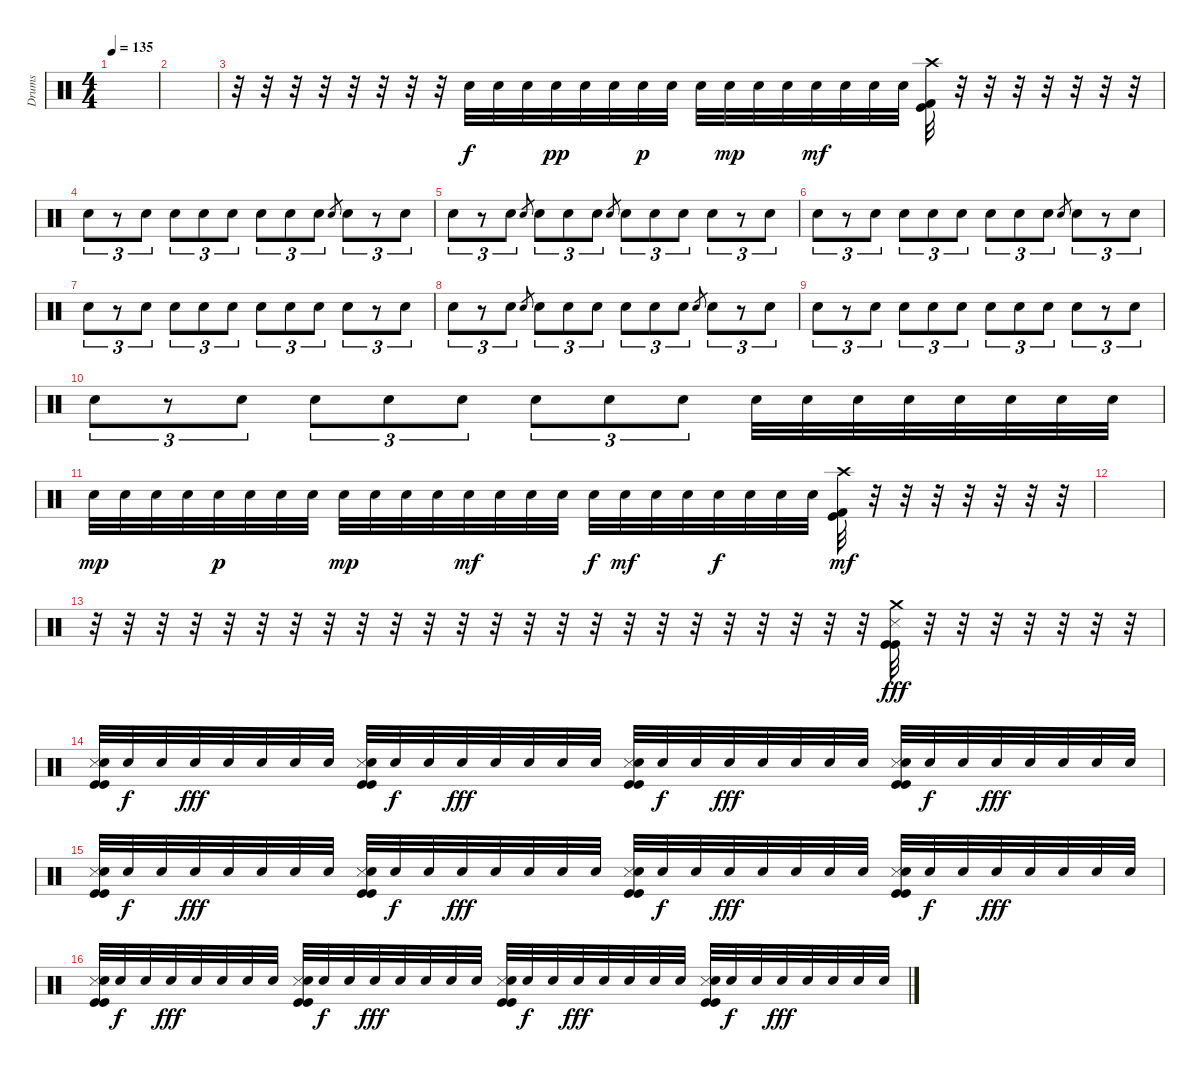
\track ("Drums" "Drums") {instrument percussion bank 24}
\staff
\articulation defaults
\ts (4 4)
\tempo 135
\clef neutral
\ks c
|
|
r.32 r.32 r.32 r.32 r.32 r.32 r.32 r.32 "Electric Snare (hit)".32 "Electric Snare (hit)".32 "Electric Snare (hit)".32 "Electric Snare (hit)".32{dy pp} "Electric Snare (hit)".32 "Electric Snare (hit)".32 "Electric Snare (hit)".32{dy p} "Electric Snare (hit)".32 "Electric Snare (hit)".32 "Electric Snare (hit)".32{dy mp} "Electric Snare (hit)".32 "Electric Snare (hit)".32 "Electric Snare (hit)".32{dy mf} "Electric Snare (hit)".32 "Electric Snare (hit)".32 "Electric Snare (hit)".32 ("Kick (hit)" "Kick (hit) 2" "Crash high (hit)").32 r.32 r.32 r.32 r.32 r.32 r.32 r.32 |
"Electric Snare (hit)".8{tu (3 2)} r.8{tu (3 2)} "Electric Snare (hit)".8{tu (3 2)} "Electric Snare (hit)".8{tu (3 2)} "Electric Snare (hit)".8{tu (3 2)} "Electric Snare (hit)".8{tu (3 2)} "Electric Snare (hit)".8{tu (3 2)} "Electric Snare (hit)".8{tu (3 2)} "Electric Snare (hit)".8{tu (3 2)} "Electric Snare (hit)".8{gr} "Electric Snare (hit)".8{tu (3 2)} r.8{tu (3 2)} "Electric Snare (hit)".8{tu (3 2)} |
"Electric Snare (hit)".8{tu (3 2)} r.8{tu (3 2)} "Electric Snare (hit)".8{tu (3 2)} "Electric Snare (hit)".8{gr} "Electric Snare (hit)".8{tu (3 2)} "Electric Snare (hit)".8{tu (3 2)} "Electric Snare (hit)".8{tu (3 2)} "Electric Snare (hit)".8{gr} "Electric Snare (hit)".8{tu (3 2)} "Electric Snare (hit)".8{tu (3 2)} "Electric Snare (hit)".8{tu (3 2)} "Electric Snare (hit)".8{tu (3 2)} r.8{tu (3 2)} "Electric Snare (hit)".8{tu (3 2)} |
"Electric Snare (hit)".8{tu (3 2)} r.8{tu (3 2)} "Electric Snare (hit)".8{tu (3 2)} "Electric Snare (hit)".8{tu (3 2)} "Electric Snare (hit)".8{tu (3 2)} "Electric Snare (hit)".8{tu (3 2)} "Electric Snare (hit)".8{tu (3 2)} "Electric Snare (hit)".8{tu (3 2)} "Electric Snare (hit)".8{tu (3 2)} "Electric Snare (hit)".8{gr} "Electric Snare (hit)".8{tu (3 2)} r.8{tu (3 2)} "Electric Snare (hit)".8{tu (3 2)} |
"Electric Snare (hit)".8{tu (3 2)} r.8{tu (3 2)} "Electric Snare (hit)".8{tu (3 2)} "Electric Snare (hit)".8{tu (3 2)} "Electric Snare (hit)".8{tu (3 2)} "Electric Snare (hit)".8{tu (3 2)} "Electric Snare (hit)".8{tu (3 2)} "Electric Snare (hit)".8{tu (3 2)} "Electric Snare (hit)".8{tu (3 2)} "Electric Snare (hit)".8{tu (3 2)} r.8{tu (3 2)} "Electric Snare (hit)".8{tu (3 2)} |
"Electric Snare (hit)".8{tu (3 2)} r.8{tu (3 2)} "Electric Snare (hit)".8{tu (3 2)} "Electric Snare (hit)".8{gr} "Electric Snare (hit)".8{tu (3 2)} "Electric Snare (hit)".8{tu (3 2)} "Electric Snare (hit)".8{tu (3 2)} "Electric Snare (hit)".8{tu (3 2)} "Electric Snare (hit)".8{tu (3 2)} "Electric Snare (hit)".8{tu (3 2)} "Electric Snare (hit)".8{gr} "Electric Snare (hit)".8{tu (3 2)} r.8{tu (3 2)} "Electric Snare (hit)".8{tu (3 2)} |
"Electric Snare (hit)".8{tu (3 2)} r.8{tu (3 2)} "Electric Snare (hit)".8{tu (3 2)} "Electric Snare (hit)".8{tu (3 2)} "Electric Snare (hit)".8{tu (3 2)} "Electric Snare (hit)".8{tu (3 2)} "Electric Snare (hit)".8{tu (3 2)} "Electric Snare (hit)".8{tu (3 2)} "Electric Snare (hit)".8{tu (3 2)} "Electric Snare (hit)".8{tu (3 2)} r.8{tu (3 2)} "Electric Snare (hit)".8{tu (3 2)} |
"Electric Snare (hit)".8{tu (3 2)} r.8{tu (3 2)} "Electric Snare (hit)".8{tu (3 2)} "Electric Snare (hit)".8{tu (3 2)} "Electric Snare (hit)".8{tu (3 2)} "Electric Snare (hit)".8{tu (3 2)} "Electric Snare (hit)".8{tu (3 2)} "Electric Snare (hit)".8{tu (3 2)} "Electric Snare (hit)".8{tu (3 2)} "Electric Snare (hit)".32 "Electric Snare (hit)".32 "Electric Snare (hit)".32 "Electric Snare (hit)".32 "Electric Snare (hit)".32 "Electric Snare (hit)".32 "Electric Snare (hit)".32 "Electric Snare (hit)".32 |
"Electric Snare (hit)".32{dy mp} "Electric Snare (hit)".32 "Electric Snare (hit)".32 "Electric Snare (hit)".32 "Electric Snare (hit)".32{dy p} "Electric Snare (hit)".32 "Electric Snare (hit)".32 "Electric Snare (hit)".32 "Electric Snare (hit)".32{dy mp} "Electric Snare (hit)".32 "Electric Snare (hit)".32 "Electric Snare (hit)".32 "Electric Snare (hit)".32{dy mf} "Electric Snare (hit)".32 "Electric Snare (hit)".32 "Electric Snare (hit)".32 "Electric Snare (hit)".32{dy f} "Electric Snare (hit)".32{dy mf} "Electric Snare (hit)".32 "Electric Snare (hit)".32 "Electric Snare (hit)".32{dy f} "Electric Snare (hit)".32 "Electric Snare (hit)".32 "Electric Snare (hit)".32 ("Kick (hit)" "Kick (hit) 2" "Crash high (hit)").32{dy mf} r.32 r.32 r.32 r.32 r.32 r.32 r.32 |
|
r.32 r.32 r.32 r.32 r.32 r.32 r.32 r.32 r.32 r.32 r.32 r.32 r.32 r.32 r.32 r.32 r.32 r.32 r.32 r.32 r.32 r.32 r.32 r.32 ("Metronome (hit)" "Kick (hit)" "Kick (hit)" "Crash medium (hit)").32{dy fff} r.32 r.32 r.32 r.32 r.32 r.32 r.32 |
("Metronome (hit)" "Kick (hit)" "Kick (hit)" "Snare (hit) 2").32 "Snare (hit)".32{dy f} "Snare (hit)".32 "Snare (hit)".32{dy fff} "Snare (hit)".32 "Snare (hit)".32 "Snare (hit)".32 "Snare (hit)".32 ("Metronome (hit)" "Kick (hit)" "Kick (hit)" "Snare (hit)").32 "Snare (hit)".32{dy f} "Snare (hit)".32 "Snare (hit)".32{dy fff} "Snare (hit)".32 "Snare (hit)".32 "Snare (hit)".32 "Snare (hit)".32 ("Metronome (hit)" "Kick (hit)" "Kick (hit)" "Snare (hit) 2").32 "Snare (hit)".32{dy f} "Snare (hit)".32 "Snare (hit)".32{dy fff} "Snare (hit)".32 "Snare (hit)".32 "Snare (hit)".32 "Snare (hit)".32 ("Metronome (hit)" "Kick (hit)" "Kick (hit)" "Snare (hit)").32 "Snare (hit)".32{dy f} "Snare (hit)".32 "Snare (hit)".32{dy fff} "Snare (hit)".32 "Snare (hit)".32 "Snare (hit)".32 "Snare (hit)".32 |
("Metronome (hit)" "Kick (hit)" "Kick (hit)" "Snare (hit) 2").32 "Snare (hit)".32{dy f} "Snare (hit)".32 "Snare (hit)".32{dy fff} "Snare (hit)".32 "Snare (hit)".32 "Snare (hit)".32 "Snare (hit)".32 ("Metronome (hit)" "Kick (hit)" "Kick (hit)" "Snare (hit)").32 "Snare (hit)".32{dy f} "Snare (hit)".32 "Snare (hit)".32{dy fff} "Snare (hit)".32 "Snare (hit)".32 "Snare (hit)".32 "Snare (hit)".32 ("Metronome (hit)" "Kick (hit)" "Kick (hit)" "Snare (hit) 2").32 "Snare (hit)".32{dy f} "Snare (hit)".32 "Snare (hit)".32{dy fff} "Snare (hit)".32 "Snare (hit)".32 "Snare (hit)".32 "Snare (hit)".32 ("Metronome (hit)" "Kick (hit)" "Kick (hit)" "Snare (hit)").32 "Snare (hit)".32{dy f} "Snare (hit)".32 "Snare (hit)".32{dy fff} "Snare (hit)".32 "Snare (hit)".32 "Snare (hit)".32 "Snare (hit)".32 |
("Metronome (hit)" "Kick (hit)" "Kick (hit)" "Snare (hit) 2").32 "Snare (hit)".32{dy f} "Snare (hit)".32 "Snare (hit)".32{dy fff} "Snare (hit)".32 "Snare (hit)".32 "Snare (hit)".32 "Snare (hit)".32 ("Metronome (hit)" "Kick (hit)" "Kick (hit)" "Snare (hit)").32 "Snare (hit)".32{dy f} "Snare (hit)".32 "Snare (hit)".32{dy fff} "Snare (hit)".32 "Snare (hit)".32 "Snare (hit)".32 "Snare (hit)".32 ("Metronome (hit)" "Kick (hit)" "Kick (hit)" "Snare (hit) 2").32 "Snare (hit)".32{dy f} "Snare (hit)".32 "Snare (hit)".32{dy fff} "Snare (hit)".32 "Snare (hit)".32 "Snare (hit)".32 "Snare (hit)".32 ("Metronome (hit)" "Kick (hit)" "Kick (hit)" "Snare (hit)").32 "Snare (hit)".32{dy f} "Snare (hit)".32 "Snare (hit)".32{dy fff} "Snare (hit)".32 "Snare (hit)".32 "Snare (hit)".32 "Snare (hit)".32
